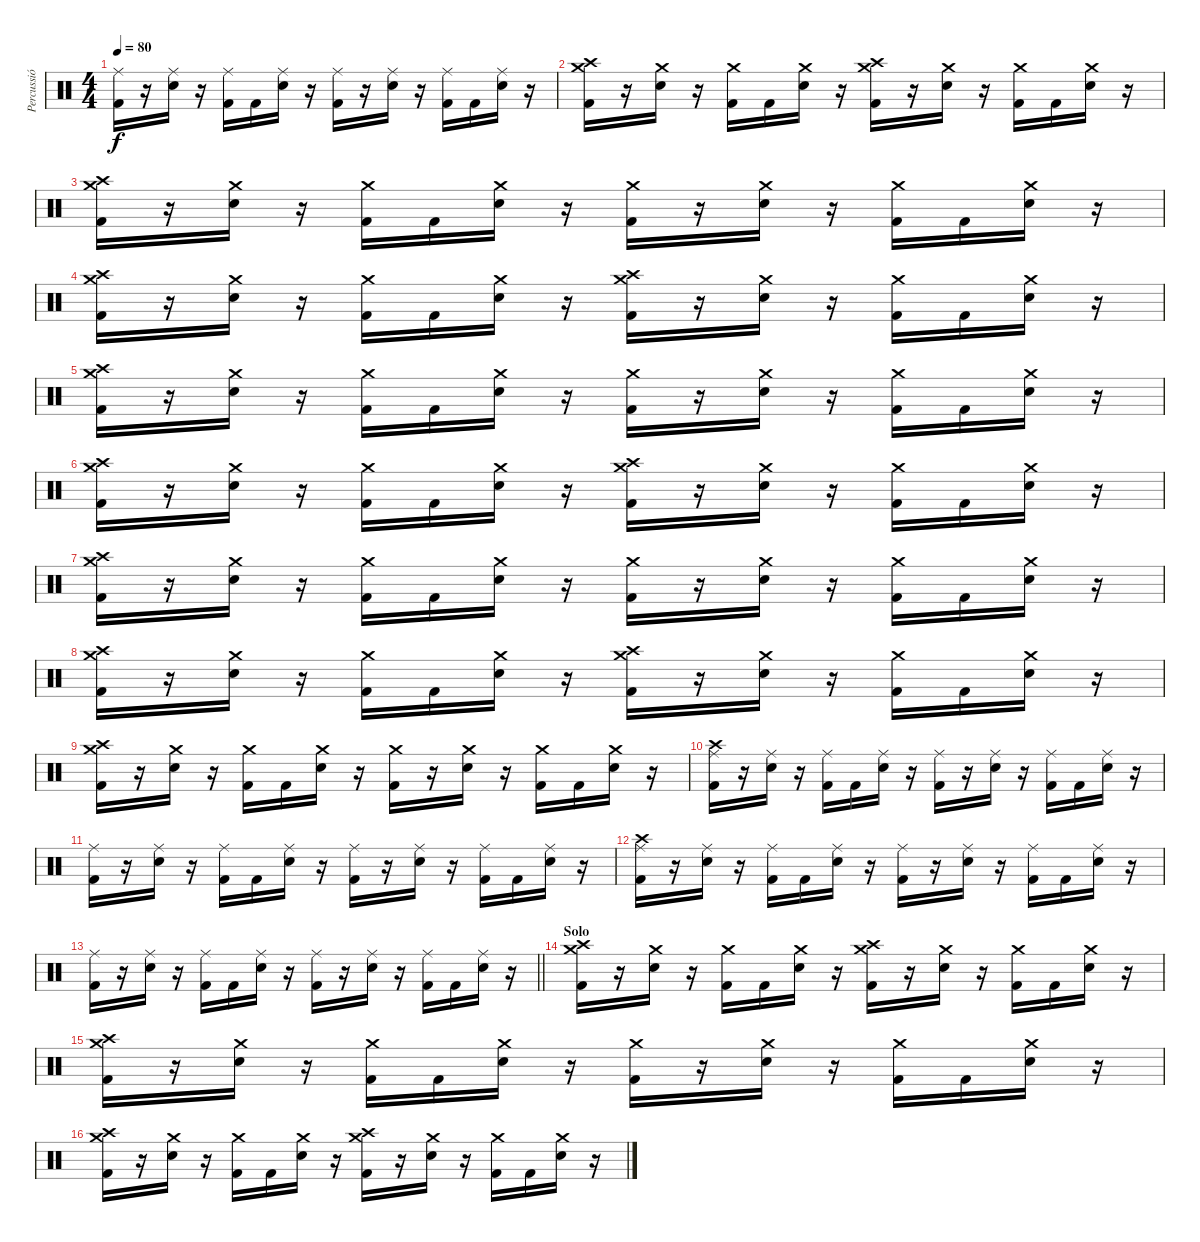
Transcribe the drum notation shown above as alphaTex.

\track ("Percussió" "Percussió") {instrument percussion}
\staff {score}
\articulation defaults
\ts (4 4)
\tempo 80
\clef neutral
\ks c
("Ride (middle)" "Kick (hit) 2").16{dy f} r.16 ("Ride (middle)" "Electric Snare (hit)").16 r.16 ("Ride (middle)" "Kick (hit) 2").16 "Kick (hit) 2".16 ("Ride (middle)" "Electric Snare (hit)").16 r.16 ("Ride (middle)" "Kick (hit) 2").16 r.16 ("Ride (middle)" "Electric Snare (hit)").16 r.16 ("Ride (middle)" "Kick (hit) 2").16 "Kick (hit) 2".16 ("Ride (middle)" "Electric Snare (hit)").16 r.16 |
("Crash high (hit)" "Crash medium (hit)" "Kick (hit) 2").16 r.16 ("Crash medium (hit)" "Electric Snare (hit)").16 r.16 ("Crash medium (hit)" "Kick (hit) 2").16 "Kick (hit) 2".16 ("Crash medium (hit)" "Electric Snare (hit)").16 r.16 ("Crash high (hit)" "Crash medium (hit)" "Kick (hit) 2").16 r.16 ("Crash medium (hit)" "Electric Snare (hit)").16 r.16 ("Crash medium (hit)" "Kick (hit) 2").16 "Kick (hit) 2".16 ("Crash medium (hit)" "Electric Snare (hit)").16 r.16 |
("Crash high (hit)" "Crash medium (hit)" "Kick (hit) 2").16 r.16 ("Crash medium (hit)" "Electric Snare (hit)").16 r.16 ("Crash medium (hit)" "Kick (hit) 2").16 "Kick (hit) 2".16 ("Crash medium (hit)" "Electric Snare (hit)").16 r.16 ("Crash medium (hit)" "Kick (hit) 2").16 r.16 ("Crash medium (hit)" "Electric Snare (hit)").16 r.16 ("Crash medium (hit)" "Kick (hit) 2").16 "Kick (hit) 2".16 ("Crash medium (hit)" "Electric Snare (hit)").16 r.16 |
("Crash high (hit)" "Crash medium (hit)" "Kick (hit) 2").16 r.16 ("Crash medium (hit)" "Electric Snare (hit)").16 r.16 ("Crash medium (hit)" "Kick (hit) 2").16 "Kick (hit) 2".16 ("Crash medium (hit)" "Electric Snare (hit)").16 r.16 ("Crash high (hit)" "Crash medium (hit)" "Kick (hit) 2").16 r.16 ("Crash medium (hit)" "Electric Snare (hit)").16 r.16 ("Crash medium (hit)" "Kick (hit) 2").16 "Kick (hit) 2".16 ("Crash medium (hit)" "Electric Snare (hit)").16 r.16 |
("Crash high (hit)" "Crash medium (hit)" "Kick (hit) 2").16 r.16 ("Crash medium (hit)" "Electric Snare (hit)").16 r.16 ("Crash medium (hit)" "Kick (hit) 2").16 "Kick (hit) 2".16 ("Crash medium (hit)" "Electric Snare (hit)").16 r.16 ("Crash medium (hit)" "Kick (hit) 2").16 r.16 ("Crash medium (hit)" "Electric Snare (hit)").16 r.16 ("Crash medium (hit)" "Kick (hit) 2").16 "Kick (hit) 2".16 ("Crash medium (hit)" "Electric Snare (hit)").16 r.16 |
("Crash high (hit)" "Crash medium (hit)" "Kick (hit) 2").16 r.16 ("Crash medium (hit)" "Electric Snare (hit)").16 r.16 ("Crash medium (hit)" "Kick (hit) 2").16 "Kick (hit) 2".16 ("Crash medium (hit)" "Electric Snare (hit)").16 r.16 ("Crash high (hit)" "Crash medium (hit)" "Kick (hit) 2").16 r.16 ("Crash medium (hit)" "Electric Snare (hit)").16 r.16 ("Crash medium (hit)" "Kick (hit) 2").16 "Kick (hit) 2".16 ("Crash medium (hit)" "Electric Snare (hit)").16 r.16 |
("Crash high (hit)" "Crash medium (hit)" "Kick (hit) 2").16 r.16 ("Crash medium (hit)" "Electric Snare (hit)").16 r.16 ("Crash medium (hit)" "Kick (hit) 2").16 "Kick (hit) 2".16 ("Crash medium (hit)" "Electric Snare (hit)").16 r.16 ("Crash medium (hit)" "Kick (hit) 2").16 r.16 ("Crash medium (hit)" "Electric Snare (hit)").16 r.16 ("Crash medium (hit)" "Kick (hit) 2").16 "Kick (hit) 2".16 ("Crash medium (hit)" "Electric Snare (hit)").16 r.16 |
("Crash high (hit)" "Crash medium (hit)" "Kick (hit) 2").16 r.16 ("Crash medium (hit)" "Electric Snare (hit)").16 r.16 ("Crash medium (hit)" "Kick (hit) 2").16 "Kick (hit) 2".16 ("Crash medium (hit)" "Electric Snare (hit)").16 r.16 ("Crash high (hit)" "Crash medium (hit)" "Kick (hit) 2").16 r.16 ("Crash medium (hit)" "Electric Snare (hit)").16 r.16 ("Crash medium (hit)" "Kick (hit) 2").16 "Kick (hit) 2".16 ("Crash medium (hit)" "Electric Snare (hit)").16 r.16 |
("Crash high (hit)" "Crash medium (hit)" "Kick (hit) 2").16 r.16 ("Crash medium (hit)" "Electric Snare (hit)").16 r.16 ("Crash medium (hit)" "Kick (hit) 2").16 "Kick (hit) 2".16 ("Crash medium (hit)" "Electric Snare (hit)").16 r.16 ("Crash medium (hit)" "Kick (hit) 2").16 r.16 ("Crash medium (hit)" "Electric Snare (hit)").16 r.16 ("Crash medium (hit)" "Kick (hit) 2").16 "Kick (hit) 2".16 ("Crash medium (hit)" "Electric Snare (hit)").16 r.16 |
("Crash high (hit)" "Ride (middle)" "Kick (hit) 2").16 r.16 ("Ride (middle)" "Electric Snare (hit)").16 r.16 ("Ride (middle)" "Kick (hit) 2").16 "Kick (hit) 2".16 ("Ride (middle)" "Electric Snare (hit)").16 r.16 ("Ride (middle)" "Kick (hit) 2").16 r.16 ("Ride (middle)" "Electric Snare (hit)").16 r.16 ("Ride (middle)" "Kick (hit) 2").16 "Kick (hit) 2".16 ("Ride (middle)" "Electric Snare (hit)").16 r.16 |
("Ride (middle)" "Kick (hit) 2").16 r.16 ("Ride (middle)" "Electric Snare (hit)").16 r.16 ("Ride (middle)" "Kick (hit) 2").16 "Kick (hit) 2".16 ("Ride (middle)" "Electric Snare (hit)").16 r.16 ("Ride (middle)" "Kick (hit) 2").16 r.16 ("Ride (middle)" "Electric Snare (hit)").16 r.16 ("Ride (middle)" "Kick (hit) 2").16 "Kick (hit) 2".16 ("Ride (middle)" "Electric Snare (hit)").16 r.16 |
("Crash high (hit)" "Ride (middle)" "Kick (hit) 2").16 r.16 ("Ride (middle)" "Electric Snare (hit)").16 r.16 ("Ride (middle)" "Kick (hit) 2").16 "Kick (hit) 2".16 ("Ride (middle)" "Electric Snare (hit)").16 r.16 ("Ride (middle)" "Kick (hit) 2").16 r.16 ("Ride (middle)" "Electric Snare (hit)").16 r.16 ("Ride (middle)" "Kick (hit) 2").16 "Kick (hit) 2".16 ("Ride (middle)" "Electric Snare (hit)").16 r.16 |
\barLineRight lightlight
("Ride (middle)" "Kick (hit) 2").16 r.16 ("Ride (middle)" "Electric Snare (hit)").16 r.16 ("Ride (middle)" "Kick (hit) 2").16 "Kick (hit) 2".16 ("Ride (middle)" "Electric Snare (hit)").16 r.16 ("Ride (middle)" "Kick (hit) 2").16 r.16 ("Ride (middle)" "Electric Snare (hit)").16 r.16 ("Ride (middle)" "Kick (hit) 2").16 "Kick (hit) 2".16 ("Ride (middle)" "Electric Snare (hit)").16 r.16 |
\section ("" "Solo")
("Crash high (hit)" "Crash medium (hit)" "Kick (hit) 2").16 r.16 ("Crash medium (hit)" "Electric Snare (hit)").16 r.16 ("Crash medium (hit)" "Kick (hit) 2").16 "Kick (hit) 2".16 ("Crash medium (hit)" "Electric Snare (hit)").16 r.16 ("Crash high (hit)" "Crash medium (hit)" "Kick (hit) 2").16 r.16 ("Crash medium (hit)" "Electric Snare (hit)").16 r.16 ("Crash medium (hit)" "Kick (hit) 2").16 "Kick (hit) 2".16 ("Crash medium (hit)" "Electric Snare (hit)").16 r.16 |
("Crash high (hit)" "Crash medium (hit)" "Kick (hit) 2").16 r.16 ("Crash medium (hit)" "Electric Snare (hit)").16 r.16 ("Crash medium (hit)" "Kick (hit) 2").16 "Kick (hit) 2".16 ("Crash medium (hit)" "Electric Snare (hit)").16 r.16 ("Crash medium (hit)" "Kick (hit) 2").16 r.16 ("Crash medium (hit)" "Electric Snare (hit)").16 r.16 ("Crash medium (hit)" "Kick (hit) 2").16 "Kick (hit) 2".16 ("Crash medium (hit)" "Electric Snare (hit)").16 r.16 |
("Crash high (hit)" "Crash medium (hit)" "Kick (hit) 2").16 r.16 ("Crash medium (hit)" "Electric Snare (hit)").16 r.16 ("Crash medium (hit)" "Kick (hit) 2").16 "Kick (hit) 2".16 ("Crash medium (hit)" "Electric Snare (hit)").16 r.16 ("Crash high (hit)" "Crash medium (hit)" "Kick (hit) 2").16 r.16 ("Crash medium (hit)" "Electric Snare (hit)").16 r.16 ("Crash medium (hit)" "Kick (hit) 2").16 "Kick (hit) 2".16 ("Crash medium (hit)" "Electric Snare (hit)").16 r.16
